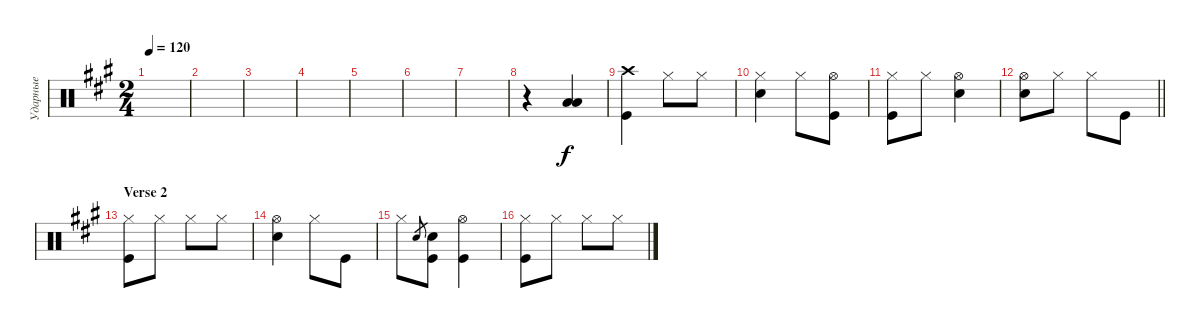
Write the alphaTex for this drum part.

\track ("Ударные" "Ударные") {instrument percussion}
\staff {score}
\articulation defaults
\ts (2 4)
\tempo 120
\clef neutral
\ks f#minor
|
|
|
|
|
|
|
r.4 ("Low Tom (hit)" "Low Tom (hit)").4{bd 120} |
("Kick (hit)" "Crash high (hit)").4 "Hi-Hat (closed)".8 "Hi-Hat (closed)".8 |
("Snare (hit) 2" "Hi-Hat (closed)").4 "Hi-Hat (closed)".8 ("Hi-Hat (open)" "Kick (hit)").8 |
("Hi-Hat (closed)" "Kick (hit)").8 "Hi-Hat (closed)".8 ("Hi-Hat (open)" "Snare (hit) 2").4 |
\barLineRight lightlight
("Hi-Hat (open)" "Snare (hit) 2").8 "Hi-Hat (closed)".8 "Hi-Hat (closed)".8 "Kick (hit)".8 |
\section ("" "Verse 2")
("Kick (hit)" "Hi-Hat (closed)").8 "Hi-Hat (closed)".8 "Hi-Hat (closed)".8 "Hi-Hat (closed)".8 |
("Hi-Hat (open)" "Snare (hit) 2").4 "Hi-Hat (closed)".8 "Kick (hit)".8 |
"Hi-Hat (closed)".8 "Snare (hit) 2".8{gr} ("Snare (hit) 2" "Kick (hit)").8 ("Kick (hit)" "Hi-Hat (open)").4 |
("Kick (hit)" "Hi-Hat (closed)").8 "Hi-Hat (closed)".8 "Hi-Hat (closed)".8 "Hi-Hat (closed)".8
